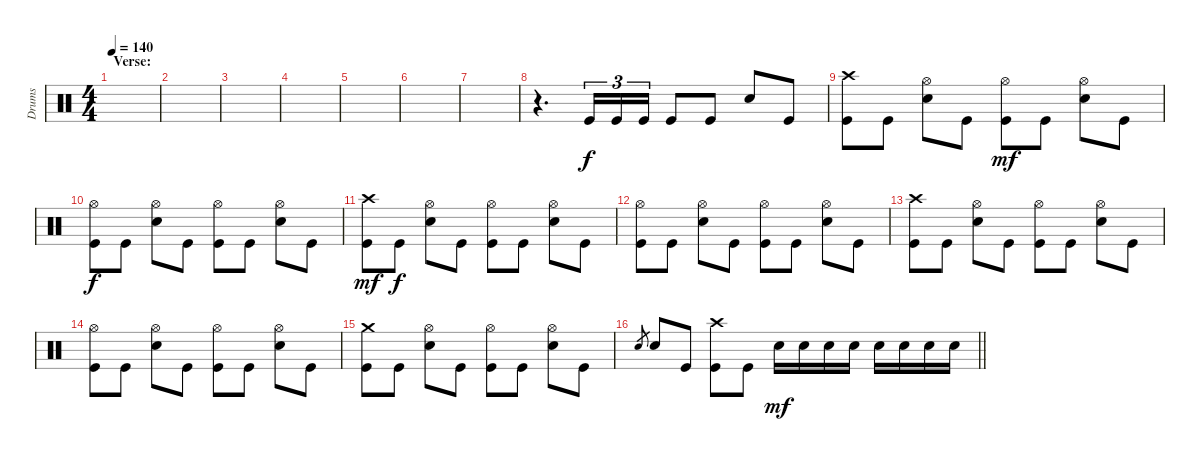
\track ("Drums" "Drums") {instrument percussion}
\staff {score}
\articulation defaults
\ts (4 4)
\section ("" "Verse:")
\tempo 140
\clef neutral
\ks c
|
|
|
|
|
|
|
r.4{d} "Kick (hit)".16{tu (3 2)} "Kick (hit)".16{tu (3 2)} "Kick (hit)".16{tu (3 2)} "Kick (hit)".8 "Kick (hit)".8 "Snare (hit) 2".8 "Kick (hit)".8 |
("Kick (hit)" "Crash high (hit)").8 "Kick (hit)".8 ("Hi-Hat (open)" "Snare (hit) 2").8 "Kick (hit)".8{dy f} ("Kick (hit)" "Hi-Hat (open)").8{dy mf} "Kick (hit)".8 ("Hi-Hat (open)" "Snare (hit) 2").8 "Kick (hit)".8 |
("Kick (hit)" "Hi-Hat (open)").8{dy f} "Kick (hit)".8 ("Snare (hit) 2" "Hi-Hat (open)").8 "Kick (hit)".8 ("Kick (hit)" "Hi-Hat (open)").8 "Kick (hit)".8 ("Snare (hit) 2" "Hi-Hat (open)").8 "Kick (hit)".8 |
("Kick (hit)" "Crash high (hit)").8{dy mf} "Kick (hit)".8{dy f} ("Snare (hit) 2" "Hi-Hat (open)").8 "Kick (hit)".8 ("Kick (hit)" "Hi-Hat (open)").8 "Kick (hit)".8 ("Snare (hit) 2" "Hi-Hat (open)").8 "Kick (hit)".8 |
("Kick (hit)" "Hi-Hat (open)").8 "Kick (hit)".8 ("Snare (hit) 2" "Hi-Hat (open)").8 "Kick (hit)".8 ("Kick (hit)" "Hi-Hat (open)").8 "Kick (hit)".8 ("Snare (hit) 2" "Hi-Hat (open)").8 "Kick (hit)".8 |
("Kick (hit)" "Crash high (hit)").8 "Kick (hit)".8 ("Snare (hit) 2" "Hi-Hat (open)").8 "Kick (hit)".8 ("Kick (hit)" "Hi-Hat (open)").8 "Kick (hit)".8 ("Snare (hit) 2" "Hi-Hat (open)").8 "Kick (hit)".8 |
("Kick (hit)" "Hi-Hat (open)").8 "Kick (hit)".8 ("Snare (hit) 2" "Hi-Hat (open)").8 "Kick (hit)".8 ("Kick (hit)" "Hi-Hat (open)").8 "Kick (hit)".8 ("Snare (hit) 2" "Hi-Hat (open)").8 "Kick (hit)".8 |
("Kick (hit)" "Crash medium (hit)").8 "Kick (hit)".8 ("Snare (hit) 2" "Hi-Hat (open)").8 "Kick (hit)".8 ("Kick (hit)" "Hi-Hat (open)").8 "Kick (hit)".8 ("Snare (hit) 2" "Hi-Hat (open)").8 "Kick (hit)".8 |
\barLineRight lightlight "Snare (hit) 2".8{gr} "Snare (hit) 2".8 "Kick (hit)".8
("Kick (hit)" "Crash high (hit)").8 "Kick (hit)".8 "Snare (hit) 2".16{dy mf} "Snare (hit) 2".16 "Snare (hit) 2".16 "Snare (hit) 2".16 "Snare (hit) 2".16 "Snare (hit) 2".16 "Snare (hit) 2".16 "Snare (hit) 2".16
